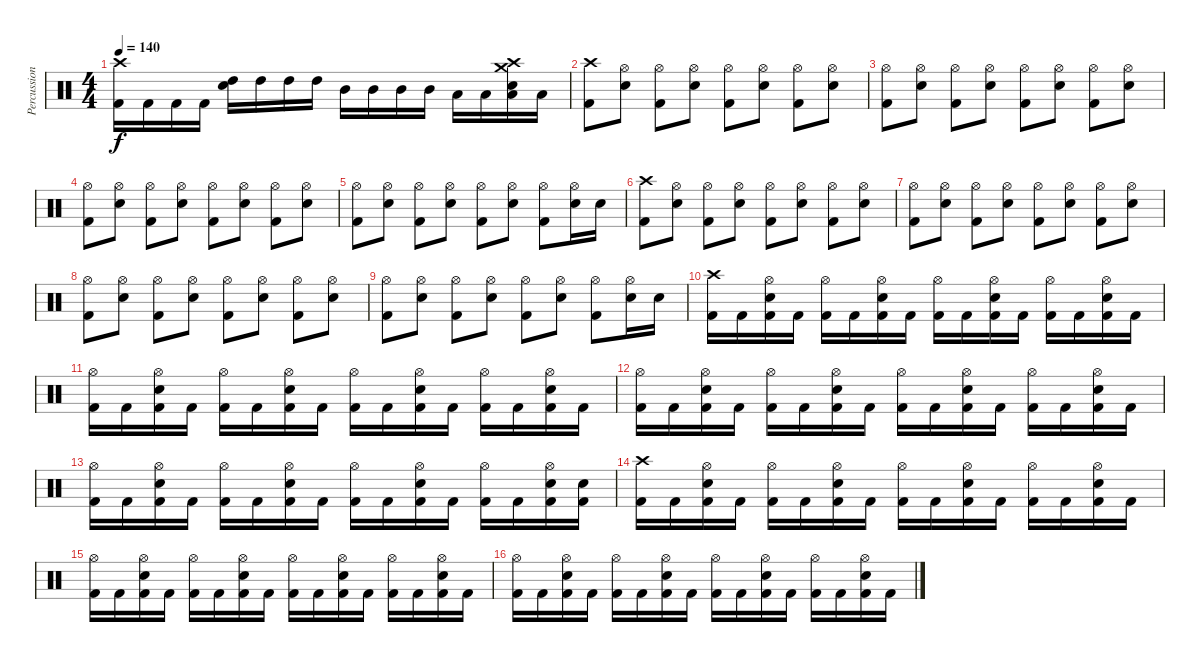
\track ("Percussions" "Percussion") {instrument percussion}
\staff {score}
\articulation defaults
\ts (4 4)
\tempo 140
\clef neutral
\ks c
("Crash high (hit)" "Kick (hit) 2").16{dy f} "Kick (hit) 2".16 "Kick (hit) 2".16 "Kick (hit) 2".16 ("Electric Snare (hit)" "High Tom (hit)").16 "High Tom (hit)".16 "High Tom (hit)".16 "High Tom (hit)".16 "Mid Tom (hit)".16 "Mid Tom (hit)".16 "Mid Tom (hit)".16 "Mid Tom (hit)".16 "Low Tom (hit)".16 "Low Tom (hit)".16 ("Crash high (hit)" "Crash medium (hit)" "Electric Snare (hit)" "Low Tom (hit)").16 "Low Tom (hit)".16 |
("Crash high (hit)" "Kick (hit) 2").8 ("Hi-Hat (open)" "Electric Snare (hit)").8 ("Hi-Hat (open)" "Kick (hit) 2").8 ("Hi-Hat (open)" "Electric Snare (hit)").8 ("Hi-Hat (open)" "Kick (hit) 2").8 ("Hi-Hat (open)" "Electric Snare (hit)").8 ("Hi-Hat (open)" "Kick (hit) 2").8 ("Hi-Hat (open)" "Electric Snare (hit)").8 |
("Hi-Hat (open)" "Kick (hit) 2").8 ("Hi-Hat (open)" "Electric Snare (hit)").8 ("Hi-Hat (open)" "Kick (hit) 2").8 ("Hi-Hat (open)" "Electric Snare (hit)").8 ("Hi-Hat (open)" "Kick (hit) 2").8 ("Hi-Hat (open)" "Electric Snare (hit)").8 ("Hi-Hat (open)" "Kick (hit) 2").8 ("Hi-Hat (open)" "Electric Snare (hit)").8 |
("Hi-Hat (open)" "Kick (hit) 2").8 ("Hi-Hat (open)" "Electric Snare (hit)").8 ("Hi-Hat (open)" "Kick (hit) 2").8 ("Hi-Hat (open)" "Electric Snare (hit)").8 ("Hi-Hat (open)" "Kick (hit) 2").8 ("Hi-Hat (open)" "Electric Snare (hit)").8 ("Hi-Hat (open)" "Kick (hit) 2").8 ("Hi-Hat (open)" "Electric Snare (hit)").8 |
("Hi-Hat (open)" "Kick (hit) 2").8 ("Hi-Hat (open)" "Electric Snare (hit)").8 ("Hi-Hat (open)" "Kick (hit) 2").8 ("Hi-Hat (open)" "Electric Snare (hit)").8 ("Hi-Hat (open)" "Kick (hit) 2").8 ("Hi-Hat (open)" "Electric Snare (hit)").8 ("Hi-Hat (open)" "Kick (hit) 2").8 ("Hi-Hat (open)" "Electric Snare (hit)").16 "Electric Snare (hit)".16 |
("Crash high (hit)" "Kick (hit) 2").8 ("Hi-Hat (open)" "Electric Snare (hit)").8 ("Hi-Hat (open)" "Kick (hit) 2").8 ("Hi-Hat (open)" "Electric Snare (hit)").8 ("Hi-Hat (open)" "Kick (hit) 2").8 ("Hi-Hat (open)" "Electric Snare (hit)").8 ("Hi-Hat (open)" "Kick (hit) 2").8 ("Hi-Hat (open)" "Electric Snare (hit)").8 |
("Hi-Hat (open)" "Kick (hit) 2").8 ("Hi-Hat (open)" "Electric Snare (hit)").8 ("Hi-Hat (open)" "Kick (hit) 2").8 ("Hi-Hat (open)" "Electric Snare (hit)").8 ("Hi-Hat (open)" "Kick (hit) 2").8 ("Hi-Hat (open)" "Electric Snare (hit)").8 ("Hi-Hat (open)" "Kick (hit) 2").8 ("Hi-Hat (open)" "Electric Snare (hit)").8 |
("Hi-Hat (open)" "Kick (hit) 2").8 ("Hi-Hat (open)" "Electric Snare (hit)").8 ("Hi-Hat (open)" "Kick (hit) 2").8 ("Hi-Hat (open)" "Electric Snare (hit)").8 ("Hi-Hat (open)" "Kick (hit) 2").8 ("Hi-Hat (open)" "Electric Snare (hit)").8 ("Hi-Hat (open)" "Kick (hit) 2").8 ("Hi-Hat (open)" "Electric Snare (hit)").8 |
("Hi-Hat (open)" "Kick (hit) 2").8 ("Hi-Hat (open)" "Electric Snare (hit)").8 ("Hi-Hat (open)" "Kick (hit) 2").8 ("Hi-Hat (open)" "Electric Snare (hit)").8 ("Hi-Hat (open)" "Kick (hit) 2").8 ("Hi-Hat (open)" "Electric Snare (hit)").8 ("Hi-Hat (open)" "Kick (hit) 2").8 ("Hi-Hat (open)" "Electric Snare (hit)").16 "Electric Snare (hit)".16 |
("Crash high (hit)" "Kick (hit) 2").16 "Kick (hit) 2".16 ("Hi-Hat (open)" "Electric Snare (hit)" "Kick (hit) 2").16 "Kick (hit) 2".16 ("Hi-Hat (open)" "Kick (hit) 2").16 "Kick (hit) 2".16 ("Hi-Hat (open)" "Electric Snare (hit)" "Kick (hit) 2").16 "Kick (hit) 2".16 ("Hi-Hat (open)" "Kick (hit) 2").16 "Kick (hit) 2".16 ("Hi-Hat (open)" "Electric Snare (hit)" "Kick (hit) 2").16 "Kick (hit) 2".16 ("Hi-Hat (open)" "Kick (hit) 2").16 "Kick (hit) 2".16 ("Hi-Hat (open)" "Electric Snare (hit)" "Kick (hit) 2").16 "Kick (hit) 2".16 |
("Hi-Hat (open)" "Kick (hit) 2").16 "Kick (hit) 2".16 ("Hi-Hat (open)" "Electric Snare (hit)" "Kick (hit) 2").16 "Kick (hit) 2".16 ("Hi-Hat (open)" "Kick (hit) 2").16 "Kick (hit) 2".16 ("Hi-Hat (open)" "Electric Snare (hit)" "Kick (hit) 2").16 "Kick (hit) 2".16 ("Hi-Hat (open)" "Kick (hit) 2").16 "Kick (hit) 2".16 ("Hi-Hat (open)" "Electric Snare (hit)" "Kick (hit) 2").16 "Kick (hit) 2".16 ("Hi-Hat (open)" "Kick (hit) 2").16 "Kick (hit) 2".16 ("Hi-Hat (open)" "Electric Snare (hit)" "Kick (hit) 2").16 "Kick (hit) 2".16 |
("Hi-Hat (open)" "Kick (hit) 2").16 "Kick (hit) 2".16 ("Hi-Hat (open)" "Electric Snare (hit)" "Kick (hit) 2").16 "Kick (hit) 2".16 ("Hi-Hat (open)" "Kick (hit) 2").16 "Kick (hit) 2".16 ("Hi-Hat (open)" "Electric Snare (hit)" "Kick (hit) 2").16 "Kick (hit) 2".16 ("Hi-Hat (open)" "Kick (hit) 2").16 "Kick (hit) 2".16 ("Hi-Hat (open)" "Electric Snare (hit)" "Kick (hit) 2").16 "Kick (hit) 2".16 ("Hi-Hat (open)" "Kick (hit) 2").16 "Kick (hit) 2".16 ("Hi-Hat (open)" "Electric Snare (hit)" "Kick (hit) 2").16 "Kick (hit) 2".16 |
("Hi-Hat (open)" "Kick (hit) 2").16 "Kick (hit) 2".16 ("Hi-Hat (open)" "Electric Snare (hit)" "Kick (hit) 2").16 "Kick (hit) 2".16 ("Hi-Hat (open)" "Kick (hit) 2").16 "Kick (hit) 2".16 ("Hi-Hat (open)" "Electric Snare (hit)" "Kick (hit) 2").16 "Kick (hit) 2".16 ("Hi-Hat (open)" "Kick (hit) 2").16 "Kick (hit) 2".16 ("Hi-Hat (open)" "Electric Snare (hit)" "Kick (hit) 2").16 "Kick (hit) 2".16 ("Hi-Hat (open)" "Kick (hit) 2").16 "Kick (hit) 2".16 ("Hi-Hat (open)" "Electric Snare (hit)" "Kick (hit) 2").16 ("Electric Snare (hit)" "Kick (hit) 2").16 |
("Crash high (hit)" "Kick (hit) 2").16 "Kick (hit) 2".16 ("Hi-Hat (open)" "Electric Snare (hit)" "Kick (hit) 2").16 "Kick (hit) 2".16 ("Hi-Hat (open)" "Kick (hit) 2").16 "Kick (hit) 2".16 ("Hi-Hat (open)" "Electric Snare (hit)" "Kick (hit) 2").16 "Kick (hit) 2".16 ("Hi-Hat (open)" "Kick (hit) 2").16 "Kick (hit) 2".16 ("Hi-Hat (open)" "Electric Snare (hit)" "Kick (hit) 2").16 "Kick (hit) 2".16 ("Hi-Hat (open)" "Kick (hit) 2").16 "Kick (hit) 2".16 ("Hi-Hat (open)" "Electric Snare (hit)" "Kick (hit) 2").16 "Kick (hit) 2".16 |
("Hi-Hat (open)" "Kick (hit) 2").16 "Kick (hit) 2".16 ("Hi-Hat (open)" "Electric Snare (hit)" "Kick (hit) 2").16 "Kick (hit) 2".16 ("Hi-Hat (open)" "Kick (hit) 2").16 "Kick (hit) 2".16 ("Hi-Hat (open)" "Electric Snare (hit)" "Kick (hit) 2").16 "Kick (hit) 2".16 ("Hi-Hat (open)" "Kick (hit) 2").16 "Kick (hit) 2".16 ("Hi-Hat (open)" "Electric Snare (hit)" "Kick (hit) 2").16 "Kick (hit) 2".16 ("Hi-Hat (open)" "Kick (hit) 2").16 "Kick (hit) 2".16 ("Hi-Hat (open)" "Electric Snare (hit)" "Kick (hit) 2").16 "Kick (hit) 2".16 |
("Hi-Hat (open)" "Kick (hit) 2").16 "Kick (hit) 2".16 ("Hi-Hat (open)" "Electric Snare (hit)" "Kick (hit) 2").16 "Kick (hit) 2".16 ("Hi-Hat (open)" "Kick (hit) 2").16 "Kick (hit) 2".16 ("Hi-Hat (open)" "Electric Snare (hit)" "Kick (hit) 2").16 "Kick (hit) 2".16 ("Hi-Hat (open)" "Kick (hit) 2").16 "Kick (hit) 2".16 ("Hi-Hat (open)" "Electric Snare (hit)" "Kick (hit) 2").16 "Kick (hit) 2".16 ("Hi-Hat (open)" "Kick (hit) 2").16 "Kick (hit) 2".16 ("Hi-Hat (open)" "Electric Snare (hit)" "Kick (hit) 2").16 "Kick (hit) 2".16
